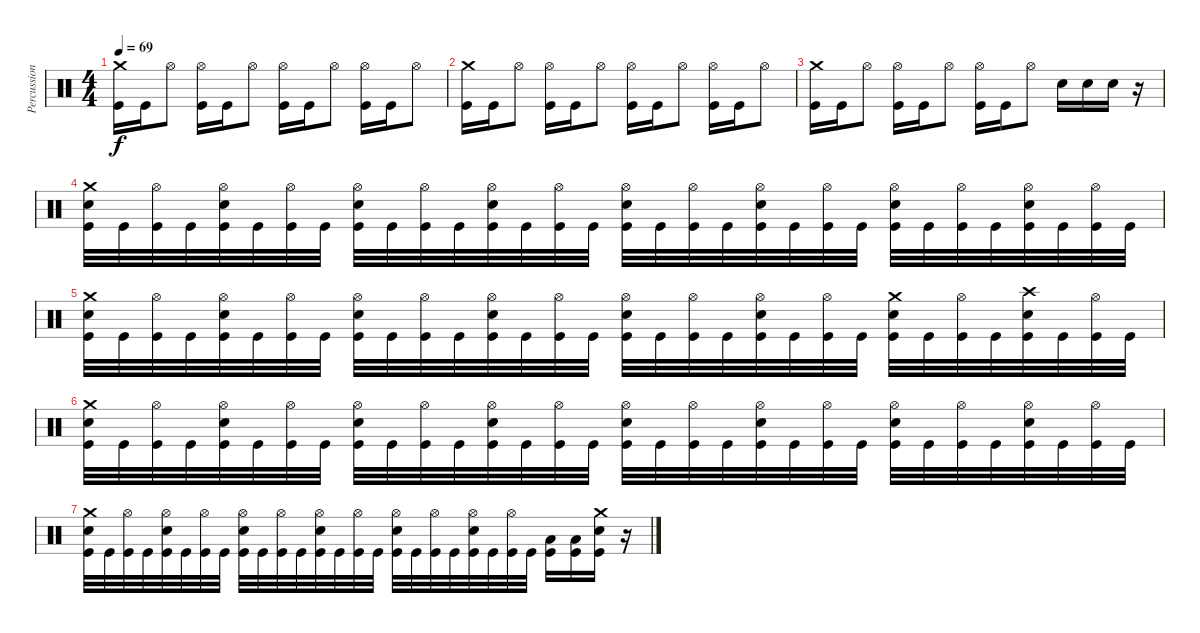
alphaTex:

\track ("Percussion" "Percussion") {instrument percussion}
\staff {score}
\articulation defaults
\ts (4 4)
\tempo 69
\clef neutral
\ks c
("Crash medium (hit)" "Kick (hit)").16{dy f} "Kick (hit)".16 "Hi-Hat (open)".8 ("Hi-Hat (open)" "Kick (hit)").16 "Kick (hit)".16 "Hi-Hat (open)".8 ("Hi-Hat (open)" "Kick (hit)").16 "Kick (hit)".16 "Hi-Hat (open)".8 ("Hi-Hat (open)" "Kick (hit)").16 "Kick (hit)".16 "Hi-Hat (open)".8 |
("Crash medium (hit)" "Kick (hit)").16 "Kick (hit)".16 "Hi-Hat (open)".8 ("Hi-Hat (open)" "Kick (hit)").16 "Kick (hit)".16 "Hi-Hat (open)".8 ("Hi-Hat (open)" "Kick (hit)").16 "Kick (hit)".16 "Hi-Hat (open)".8 ("Hi-Hat (open)" "Kick (hit)").16 "Kick (hit)".16 "Hi-Hat (open)".8 |
("Crash medium (hit)" "Kick (hit)").16 "Kick (hit)".16 "Hi-Hat (open)".8 ("Hi-Hat (open)" "Kick (hit)").16 "Kick (hit)".16 "Hi-Hat (open)".8 ("Hi-Hat (open)" "Kick (hit)").16 "Kick (hit)".16 "Hi-Hat (open)".8 "Electric Snare (hit)".16 "Electric Snare (hit)".16 "Electric Snare (hit)".16 r.16 |
("Crash medium (hit)" "Electric Snare (hit)" "Kick (hit)").32 "Kick (hit)".32 ("Hi-Hat (open)" "Kick (hit)").32 "Kick (hit)".32 ("Hi-Hat (open)" "Electric Snare (hit)" "Kick (hit)").32 "Kick (hit)".32 ("Hi-Hat (open)" "Kick (hit)").32 "Kick (hit)".32 ("Hi-Hat (open)" "Electric Snare (hit)" "Kick (hit)").32 "Kick (hit)".32 ("Hi-Hat (open)" "Kick (hit)").32 "Kick (hit)".32 ("Hi-Hat (open)" "Electric Snare (hit)" "Kick (hit)").32 "Kick (hit)".32 ("Hi-Hat (open)" "Kick (hit)").32 "Kick (hit)".32 ("Hi-Hat (open)" "Electric Snare (hit)" "Kick (hit)").32 "Kick (hit)".32 ("Hi-Hat (open)" "Kick (hit)").32 "Kick (hit)".32 ("Hi-Hat (open)" "Electric Snare (hit)" "Kick (hit)").32 "Kick (hit)".32 ("Hi-Hat (open)" "Kick (hit)").32 "Kick (hit)".32 ("Hi-Hat (open)" "Electric Snare (hit)" "Kick (hit)").32 "Kick (hit)".32 ("Hi-Hat (open)" "Kick (hit)").32 "Kick (hit)".32 ("Hi-Hat (open)" "Electric Snare (hit)" "Kick (hit)").32 "Kick (hit)".32 ("Hi-Hat (open)" "Kick (hit)").32 "Kick (hit)".32 |
("Crash medium (hit)" "Electric Snare (hit)" "Kick (hit)").32 "Kick (hit)".32 ("Hi-Hat (open)" "Kick (hit)").32 "Kick (hit)".32 ("Hi-Hat (open)" "Electric Snare (hit)" "Kick (hit)").32 "Kick (hit)".32 ("Hi-Hat (open)" "Kick (hit)").32 "Kick (hit)".32 ("Hi-Hat (open)" "Electric Snare (hit)" "Kick (hit)").32 "Kick (hit)".32 ("Hi-Hat (open)" "Kick (hit)").32 "Kick (hit)".32 ("Hi-Hat (open)" "Electric Snare (hit)" "Kick (hit)").32 "Kick (hit)".32 ("Hi-Hat (open)" "Kick (hit)").32 "Kick (hit)".32 ("Hi-Hat (open)" "Electric Snare (hit)" "Kick (hit)").32 "Kick (hit)".32 ("Hi-Hat (open)" "Kick (hit)").32 "Kick (hit)".32 ("Hi-Hat (open)" "Electric Snare (hit)" "Kick (hit)").32 "Kick (hit)".32 ("Hi-Hat (open)" "Kick (hit)").32 "Kick (hit)".32 ("Crash medium (hit)" "Electric Snare (hit)" "Kick (hit)").32 "Kick (hit)".32 ("Hi-Hat (open)" "Kick (hit)").32 "Kick (hit)".32 ("Crash high (hit)" "Electric Snare (hit)" "Kick (hit)").32 "Kick (hit)".32 ("Hi-Hat (open)" "Kick (hit)").32 "Kick (hit)".32 |
("Crash medium (hit)" "Electric Snare (hit)" "Kick (hit)").32 "Kick (hit)".32 ("Hi-Hat (open)" "Kick (hit)").32 "Kick (hit)".32 ("Hi-Hat (open)" "Electric Snare (hit)" "Kick (hit)").32 "Kick (hit)".32 ("Hi-Hat (open)" "Kick (hit)").32 "Kick (hit)".32 ("Hi-Hat (open)" "Electric Snare (hit)" "Kick (hit)").32 "Kick (hit)".32 ("Hi-Hat (open)" "Kick (hit)").32 "Kick (hit)".32 ("Hi-Hat (open)" "Electric Snare (hit)" "Kick (hit)").32 "Kick (hit)".32 ("Hi-Hat (open)" "Kick (hit)").32 "Kick (hit)".32 ("Hi-Hat (open)" "Electric Snare (hit)" "Kick (hit)").32 "Kick (hit)".32 ("Hi-Hat (open)" "Kick (hit)").32 "Kick (hit)".32 ("Hi-Hat (open)" "Electric Snare (hit)" "Kick (hit)").32 "Kick (hit)".32 ("Hi-Hat (open)" "Kick (hit)").32 "Kick (hit)".32 ("Hi-Hat (open)" "Electric Snare (hit)" "Kick (hit)").32 "Kick (hit)".32 ("Hi-Hat (open)" "Kick (hit)").32 "Kick (hit)".32 ("Hi-Hat (open)" "Electric Snare (hit)" "Kick (hit)").32 "Kick (hit)".32 ("Hi-Hat (open)" "Kick (hit)").32 "Kick (hit)".32 |
("Crash medium (hit)" "Electric Snare (hit)" "Kick (hit)").32 "Kick (hit)".32 ("Hi-Hat (open)" "Kick (hit)").32 "Kick (hit)".32 ("Hi-Hat (open)" "Electric Snare (hit)" "Kick (hit)").32 "Kick (hit)".32 ("Hi-Hat (open)" "Kick (hit)").32 "Kick (hit)".32 ("Hi-Hat (open)" "Electric Snare (hit)" "Kick (hit)").32 "Kick (hit)".32 ("Hi-Hat (open)" "Kick (hit)").32 "Kick (hit)".32 ("Hi-Hat (open)" "Electric Snare (hit)" "Kick (hit)").32 "Kick (hit)".32 ("Hi-Hat (open)" "Kick (hit)").32 "Kick (hit)".32 ("Hi-Hat (open)" "Electric Snare (hit)" "Kick (hit)").32 "Kick (hit)".32 ("Hi-Hat (open)" "Kick (hit)").32 "Kick (hit)".32 ("Hi-Hat (open)" "Electric Snare (hit)" "Kick (hit)").32 "Kick (hit)".32 ("Hi-Hat (open)" "Kick (hit)").32 "Kick (hit)".32 ("Low Tom (hit)" "Kick (hit)").16 ("Low Tom (hit)" "Kick (hit)").16 ("Crash medium (hit)" "Electric Snare (hit)" "Kick (hit)").16 r.16
